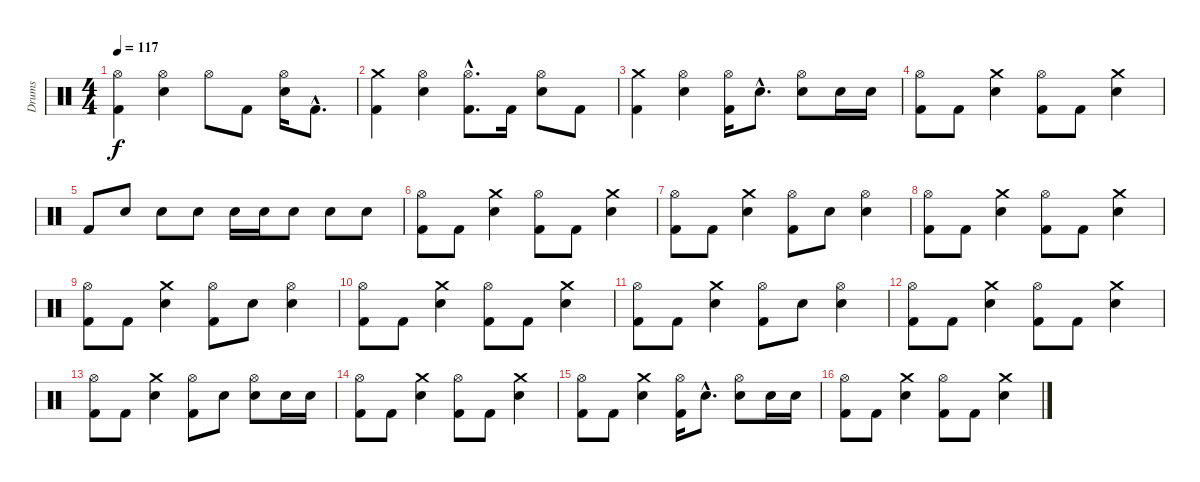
\track ("Drums" "Drums") {instrument percussion}
\staff {score}
\articulation defaults
\ts (4 4)
\tempo 117
\clef neutral
\ks c
("Hi-Hat (open)" "Kick (hit) 2").4{dy f} ("Hi-Hat (open)" "Snare (hit) 2").4 "Hi-Hat (open)".8 "Kick (hit) 2".8 ("Hi-Hat (open)" "Snare (hit) 2").16 "Kick (hit) 2"{hac}.8{d} |
("Crash medium (hit)" "Kick (hit) 2").4 ("Hi-Hat (open)" "Snare (hit) 2").4 ("Hi-Hat (open)"{hac} "Kick (hit) 2"{hac}).8{d} "Kick (hit) 2".16 ("Hi-Hat (open)" "Snare (hit) 2").8 "Kick (hit) 2".8 |
("Crash medium (hit)" "Kick (hit) 2").4 ("Hi-Hat (open)" "Snare (hit) 2").4 ("Hi-Hat (open)" "Kick (hit) 2").16 "Snare (hit) 2"{hac}.8{d} ("Hi-Hat (open)" "Snare (hit) 2").8 "Snare (hit) 2".16 "Snare (hit) 2".16 |
("Hi-Hat (open)" "Kick (hit) 2").8 "Kick (hit) 2".8 ("Crash medium (hit)" "Snare (hit) 2").4 ("Hi-Hat (open)" "Kick (hit) 2").8 "Kick (hit) 2".8 ("Crash medium (hit)" "Snare (hit) 2").4 |
"Kick (hit) 2".8 "Snare (hit) 2".8 "Snare (hit) 2".8 "Snare (hit) 2".8 "Snare (hit) 2".16 "Snare (hit) 2".16 "Snare (hit) 2".8 "Snare (hit) 2".8 "Snare (hit) 2".8 |
("Hi-Hat (open)" "Kick (hit) 2").8 "Kick (hit) 2".8 ("Crash medium (hit)" "Snare (hit) 2").4 ("Hi-Hat (open)" "Kick (hit) 2").8 "Kick (hit) 2".8 ("Crash medium (hit)" "Snare (hit) 2").4 |
("Hi-Hat (open)" "Kick (hit) 2").8 "Kick (hit) 2".8 ("Crash medium (hit)" "Snare (hit) 2").4 ("Hi-Hat (open)" "Kick (hit) 2").8 "Snare (hit) 2".8 ("Hi-Hat (open)" "Snare (hit) 2").4 |
("Hi-Hat (open)" "Kick (hit) 2").8 "Kick (hit) 2".8 ("Crash medium (hit)" "Snare (hit) 2").4 ("Hi-Hat (open)" "Kick (hit) 2").8 "Kick (hit) 2".8 ("Crash medium (hit)" "Snare (hit) 2").4 |
("Hi-Hat (open)" "Kick (hit) 2").8 "Kick (hit) 2".8 ("Crash medium (hit)" "Snare (hit) 2").4 ("Hi-Hat (open)" "Kick (hit) 2").8 "Snare (hit) 2".8 ("Hi-Hat (open)" "Snare (hit) 2").4 |
("Hi-Hat (open)" "Kick (hit) 2").8 "Kick (hit) 2".8 ("Crash medium (hit)" "Snare (hit) 2").4 ("Hi-Hat (open)" "Kick (hit) 2").8 "Kick (hit) 2".8 ("Crash medium (hit)" "Snare (hit) 2").4 |
("Hi-Hat (open)" "Kick (hit) 2").8 "Kick (hit) 2".8 ("Crash medium (hit)" "Snare (hit) 2").4 ("Hi-Hat (open)" "Kick (hit) 2").8 "Snare (hit) 2".8 ("Hi-Hat (open)" "Snare (hit) 2").4 |
("Hi-Hat (open)" "Kick (hit) 2").8 "Kick (hit) 2".8 ("Crash medium (hit)" "Snare (hit) 2").4 ("Hi-Hat (open)" "Kick (hit) 2").8 "Kick (hit) 2".8 ("Crash medium (hit)" "Snare (hit) 2").4 |
("Hi-Hat (open)" "Kick (hit) 2").8 "Kick (hit) 2".8 ("Crash medium (hit)" "Snare (hit) 2").4 ("Hi-Hat (open)" "Kick (hit) 2").8 "Snare (hit) 2".8 ("Hi-Hat (open)" "Snare (hit) 2").8 "Snare (hit) 2".16 "Snare (hit) 2".16 |
("Hi-Hat (open)" "Kick (hit) 2").8 "Kick (hit) 2".8 ("Crash medium (hit)" "Snare (hit) 2").4 ("Hi-Hat (open)" "Kick (hit) 2").8 "Kick (hit) 2".8 ("Crash medium (hit)" "Snare (hit) 2").4 |
("Hi-Hat (open)" "Kick (hit) 2").8 "Kick (hit) 2".8 ("Crash medium (hit)" "Snare (hit) 2").4 ("Hi-Hat (open)" "Kick (hit) 2").16 "Snare (hit) 2"{hac}.8{d} ("Hi-Hat (open)" "Snare (hit) 2").8 "Snare (hit) 2".16 "Snare (hit) 2".16 |
("Hi-Hat (open)" "Kick (hit) 2").8 "Kick (hit) 2".8 ("Crash medium (hit)" "Snare (hit) 2").4 ("Hi-Hat (open)" "Kick (hit) 2").8 "Kick (hit) 2".8 ("Crash medium (hit)" "Snare (hit) 2").4
